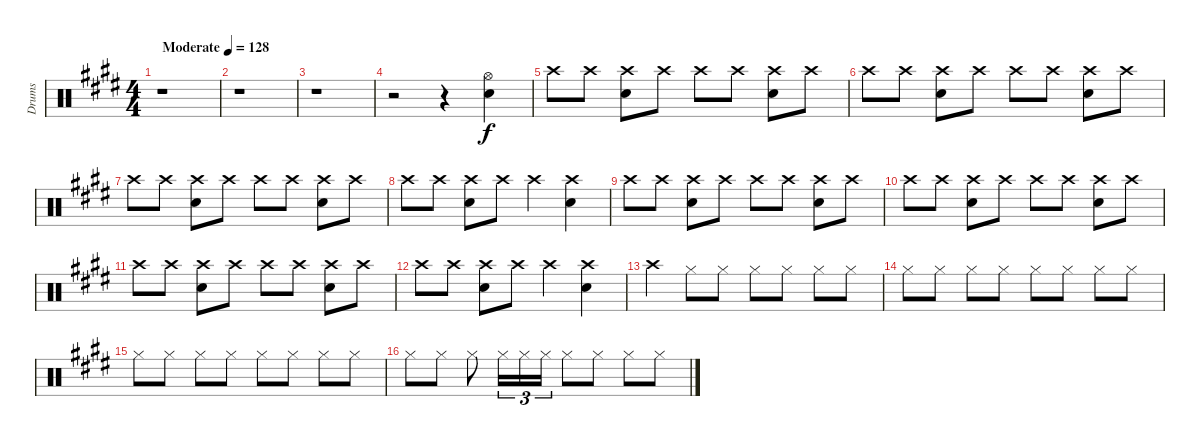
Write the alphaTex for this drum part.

\track ("Drums" "Drums") {instrument percussion}
\staff {score}
\articulation defaults
\ts (4 4)
\tempo (128 "Moderate")
\clef neutral
\ks e
r.1{dy f} |
r.1 |
r.1 |
r.2 r.4 ("Hi-Hat (open)" "Snare (hit) 2").4 |
"Crash high (hit)".8 "Crash high (hit)".8 ("Crash high (hit)" "Snare (hit) 2").8 "Crash high (hit)".8 "Crash high (hit)".8 "Crash high (hit)".8 ("Crash high (hit)" "Snare (hit) 2").8 "Crash high (hit)".8 |
"Crash high (hit)".8 "Crash high (hit)".8 ("Crash high (hit)" "Snare (hit) 2").8 "Crash high (hit)".8 "Crash high (hit)".8 "Crash high (hit)".8 ("Crash high (hit)" "Snare (hit) 2").8 "Crash high (hit)".8 |
"Crash high (hit)".8 "Crash high (hit)".8 ("Crash high (hit)" "Snare (hit) 2").8 "Crash high (hit)".8 "Crash high (hit)".8 "Crash high (hit)".8 ("Crash high (hit)" "Snare (hit) 2").8 "Crash high (hit)".8 |
"Crash high (hit)".8 "Crash high (hit)".8 ("Crash high (hit)" "Snare (hit) 2").8 "Crash high (hit)".8 "Crash high (hit)".4 ("Crash high (hit)" "Snare (hit) 2").4 |
"Crash high (hit)".8 "Crash high (hit)".8 ("Crash high (hit)" "Snare (hit) 2").8 "Crash high (hit)".8 "Crash high (hit)".8 "Crash high (hit)".8 ("Crash high (hit)" "Snare (hit) 2").8 "Crash high (hit)".8 |
"Crash high (hit)".8 "Crash high (hit)".8 ("Crash high (hit)" "Snare (hit) 2").8 "Crash high (hit)".8 "Crash high (hit)".8 "Crash high (hit)".8 ("Crash high (hit)" "Snare (hit) 2").8 "Crash high (hit)".8 |
"Crash high (hit)".8 "Crash high (hit)".8 ("Crash high (hit)" "Snare (hit) 2").8 "Crash high (hit)".8 "Crash high (hit)".8 "Crash high (hit)".8 ("Crash high (hit)" "Snare (hit) 2").8 "Crash high (hit)".8 |
"Crash high (hit)".8 "Crash high (hit)".8 ("Crash high (hit)" "Snare (hit) 2").8 "Crash high (hit)".8 "Crash high (hit)".4 ("Crash high (hit)" "Snare (hit) 2").4 |
"Crash high (hit)".4 "Hi-Hat (closed)".8 "Hi-Hat (closed)".8 "Hi-Hat (closed)".8 "Hi-Hat (closed)".8 "Hi-Hat (closed)".8 "Hi-Hat (closed)".8 |
"Hi-Hat (closed)".8 "Hi-Hat (closed)".8 "Hi-Hat (closed)".8 "Hi-Hat (closed)".8 "Hi-Hat (closed)".8 "Hi-Hat (closed)".8 "Hi-Hat (closed)".8 "Hi-Hat (closed)".8 |
"Hi-Hat (closed)".8 "Hi-Hat (closed)".8 "Hi-Hat (closed)".8 "Hi-Hat (closed)".8 "Hi-Hat (closed)".8 "Hi-Hat (closed)".8 "Hi-Hat (closed)".8 "Hi-Hat (closed)".8 |
"Hi-Hat (closed)".8 "Hi-Hat (closed)".8 "Hi-Hat (closed)".8 "Hi-Hat (closed)".16{tu (3 2)} "Hi-Hat (closed)".16{tu (3 2)} "Hi-Hat (closed)".16{tu (3 2)} "Hi-Hat (closed)".8 "Hi-Hat (closed)".8 "Hi-Hat (closed)".8 "Hi-Hat (closed)".8
